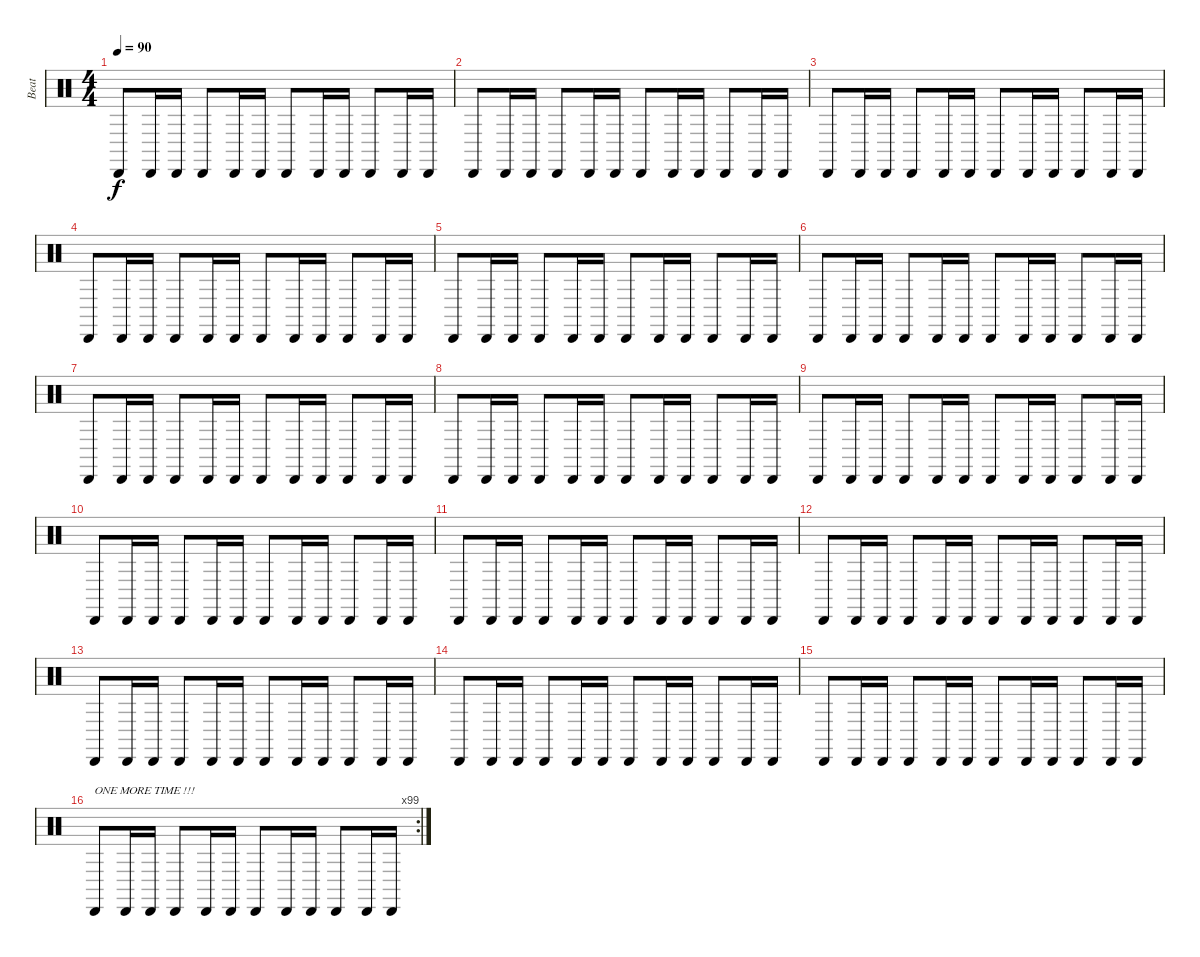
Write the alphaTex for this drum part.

\track ("Beat" "Beat") {instrument percussion}
\staff {score}
\articulation defaults
\ts (4 4)
\tempo 90
\clef neutral
\ks c "Cabasa (hit)".8{dy f} "Cabasa (hit)".16 "Cabasa (hit)".16 "Cabasa (hit)".8 "Cabasa (hit)".16 "Cabasa (hit)".16 "Cabasa (hit)".8 "Cabasa (hit)".16 "Cabasa (hit)".16 "Cabasa (hit)".8 "Cabasa (hit)".16 "Cabasa (hit)".16
|
"Cabasa (hit)".8 "Cabasa (hit)".16 "Cabasa (hit)".16 "Cabasa (hit)".8 "Cabasa (hit)".16 "Cabasa (hit)".16 "Cabasa (hit)".8 "Cabasa (hit)".16 "Cabasa (hit)".16 "Cabasa (hit)".8 "Cabasa (hit)".16 "Cabasa (hit)".16 |
"Cabasa (hit)".8 "Cabasa (hit)".16 "Cabasa (hit)".16 "Cabasa (hit)".8 "Cabasa (hit)".16 "Cabasa (hit)".16 "Cabasa (hit)".8 "Cabasa (hit)".16 "Cabasa (hit)".16 "Cabasa (hit)".8 "Cabasa (hit)".16 "Cabasa (hit)".16 |
"Cabasa (hit)".8 "Cabasa (hit)".16 "Cabasa (hit)".16 "Cabasa (hit)".8 "Cabasa (hit)".16 "Cabasa (hit)".16 "Cabasa (hit)".8 "Cabasa (hit)".16 "Cabasa (hit)".16 "Cabasa (hit)".8 "Cabasa (hit)".16 "Cabasa (hit)".16 |
"Cabasa (hit)".8 "Cabasa (hit)".16 "Cabasa (hit)".16 "Cabasa (hit)".8 "Cabasa (hit)".16 "Cabasa (hit)".16 "Cabasa (hit)".8 "Cabasa (hit)".16 "Cabasa (hit)".16 "Cabasa (hit)".8 "Cabasa (hit)".16 "Cabasa (hit)".16 |
"Cabasa (hit)".8 "Cabasa (hit)".16 "Cabasa (hit)".16 "Cabasa (hit)".8 "Cabasa (hit)".16 "Cabasa (hit)".16 "Cabasa (hit)".8 "Cabasa (hit)".16 "Cabasa (hit)".16 "Cabasa (hit)".8 "Cabasa (hit)".16 "Cabasa (hit)".16 |
"Cabasa (hit)".8 "Cabasa (hit)".16 "Cabasa (hit)".16 "Cabasa (hit)".8 "Cabasa (hit)".16 "Cabasa (hit)".16 "Cabasa (hit)".8 "Cabasa (hit)".16 "Cabasa (hit)".16 "Cabasa (hit)".8 "Cabasa (hit)".16 "Cabasa (hit)".16 |
"Cabasa (hit)".8 "Cabasa (hit)".16 "Cabasa (hit)".16 "Cabasa (hit)".8 "Cabasa (hit)".16 "Cabasa (hit)".16 "Cabasa (hit)".8 "Cabasa (hit)".16 "Cabasa (hit)".16 "Cabasa (hit)".8 "Cabasa (hit)".16 "Cabasa (hit)".16 |
"Cabasa (hit)".8 "Cabasa (hit)".16 "Cabasa (hit)".16 "Cabasa (hit)".8 "Cabasa (hit)".16 "Cabasa (hit)".16 "Cabasa (hit)".8 "Cabasa (hit)".16 "Cabasa (hit)".16 "Cabasa (hit)".8 "Cabasa (hit)".16 "Cabasa (hit)".16 |
"Cabasa (hit)".8 "Cabasa (hit)".16 "Cabasa (hit)".16 "Cabasa (hit)".8 "Cabasa (hit)".16 "Cabasa (hit)".16 "Cabasa (hit)".8 "Cabasa (hit)".16 "Cabasa (hit)".16 "Cabasa (hit)".8 "Cabasa (hit)".16 "Cabasa (hit)".16 |
"Cabasa (hit)".8 "Cabasa (hit)".16 "Cabasa (hit)".16 "Cabasa (hit)".8 "Cabasa (hit)".16 "Cabasa (hit)".16 "Cabasa (hit)".8 "Cabasa (hit)".16 "Cabasa (hit)".16 "Cabasa (hit)".8 "Cabasa (hit)".16 "Cabasa (hit)".16 |
"Cabasa (hit)".8 "Cabasa (hit)".16 "Cabasa (hit)".16 "Cabasa (hit)".8 "Cabasa (hit)".16 "Cabasa (hit)".16 "Cabasa (hit)".8 "Cabasa (hit)".16 "Cabasa (hit)".16 "Cabasa (hit)".8 "Cabasa (hit)".16 "Cabasa (hit)".16 |
"Cabasa (hit)".8 "Cabasa (hit)".16 "Cabasa (hit)".16 "Cabasa (hit)".8 "Cabasa (hit)".16 "Cabasa (hit)".16 "Cabasa (hit)".8 "Cabasa (hit)".16 "Cabasa (hit)".16 "Cabasa (hit)".8 "Cabasa (hit)".16 "Cabasa (hit)".16 |
"Cabasa (hit)".8 "Cabasa (hit)".16 "Cabasa (hit)".16 "Cabasa (hit)".8 "Cabasa (hit)".16 "Cabasa (hit)".16 "Cabasa (hit)".8 "Cabasa (hit)".16 "Cabasa (hit)".16 "Cabasa (hit)".8 "Cabasa (hit)".16 "Cabasa (hit)".16 |
"Cabasa (hit)".8 "Cabasa (hit)".16 "Cabasa (hit)".16 "Cabasa (hit)".8 "Cabasa (hit)".16 "Cabasa (hit)".16 "Cabasa (hit)".8 "Cabasa (hit)".16 "Cabasa (hit)".16 "Cabasa (hit)".8 "Cabasa (hit)".16 "Cabasa (hit)".16 |
\rc 99 "Cabasa (hit)".8{txt "ONE MORE TIME !!!"} "Cabasa (hit)".16 "Cabasa (hit)".16 "Cabasa (hit)".8 "Cabasa (hit)".16 "Cabasa (hit)".16 "Cabasa (hit)".8 "Cabasa (hit)".16 "Cabasa (hit)".16 "Cabasa (hit)".8 "Cabasa (hit)".16 "Cabasa (hit)".16
